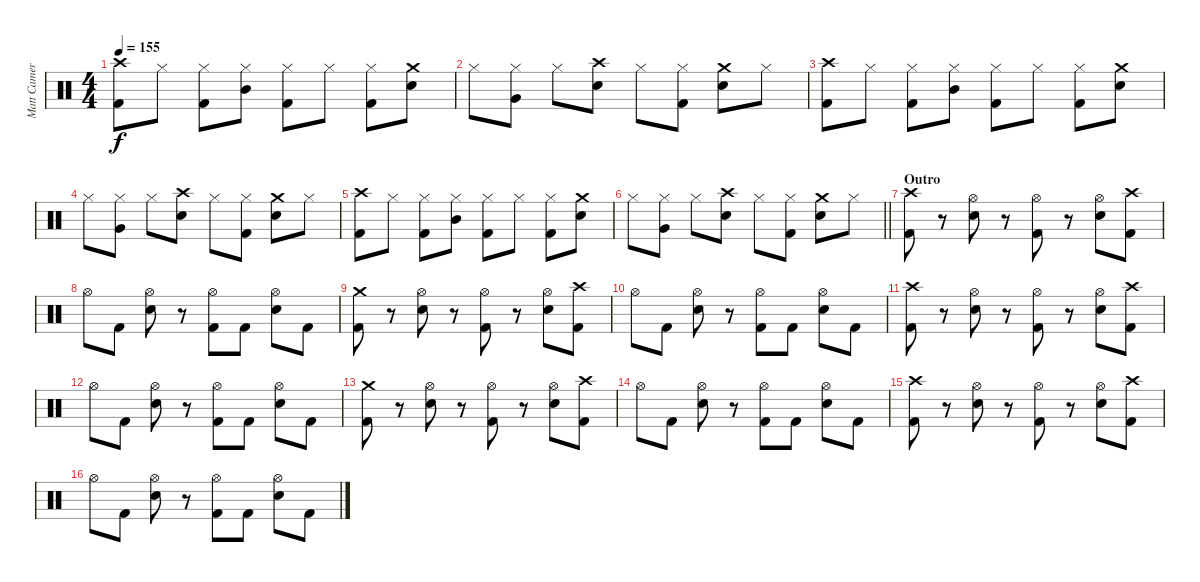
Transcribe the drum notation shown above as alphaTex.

\track ("Matt Cameron" "Matt Camer") {instrument percussion}
\staff {score}
\articulation defaults
\ts (4 4)
\tempo 155
\clef neutral
\ks c
("Crash high (hit)" "Kick (hit) 2").8{dy f} "Hi-Hat (closed)".8 ("Hi-Hat (closed)" "Kick (hit) 2").8 ("Hi-Hat (closed)" "Mid Tom (hit)").8 ("Hi-Hat (closed)" "Kick (hit) 2").8 "Hi-Hat (closed)".8 ("Hi-Hat (closed)" "Kick (hit) 2").8 ("Crash medium (hit)" "Snare (hit) 2").8 |
"Hi-Hat (closed)".8 ("Hi-Hat (closed)" "Very Low Tom (hit)").8 "Hi-Hat (closed)".8 ("Crash high (hit)" "Snare (hit) 2").8 "Hi-Hat (closed)".8 ("Hi-Hat (closed)" "Kick (hit) 2").8 ("Crash medium (hit)" "Snare (hit) 2").8 "Hi-Hat (closed)".8 |
("Crash high (hit)" "Kick (hit) 2").8 "Hi-Hat (closed)".8 ("Hi-Hat (closed)" "Kick (hit) 2").8 ("Hi-Hat (closed)" "Mid Tom (hit)").8 ("Hi-Hat (closed)" "Kick (hit) 2").8 "Hi-Hat (closed)".8 ("Hi-Hat (closed)" "Kick (hit) 2").8 ("Crash medium (hit)" "Snare (hit) 2").8 |
"Hi-Hat (closed)".8 ("Hi-Hat (closed)" "Very Low Tom (hit)").8 "Hi-Hat (closed)".8 ("Crash high (hit)" "Snare (hit) 2").8 "Hi-Hat (closed)".8 ("Hi-Hat (closed)" "Kick (hit) 2").8 ("Crash medium (hit)" "Snare (hit) 2").8 "Hi-Hat (closed)".8 |
("Crash high (hit)" "Kick (hit) 2").8 "Hi-Hat (closed)".8 ("Hi-Hat (closed)" "Kick (hit) 2").8 ("Hi-Hat (closed)" "Mid Tom (hit)").8 ("Hi-Hat (closed)" "Kick (hit) 2").8 "Hi-Hat (closed)".8 ("Hi-Hat (closed)" "Kick (hit) 2").8 ("Crash medium (hit)" "Snare (hit) 2").8 |
\barLineRight lightlight "Hi-Hat (closed)".8
("Hi-Hat (closed)" "Very Low Tom (hit)").8 "Hi-Hat (closed)".8 ("Crash high (hit)" "Snare (hit) 2").8 "Hi-Hat (closed)".8 ("Hi-Hat (closed)" "Kick (hit) 2").8 ("Crash medium (hit)" "Snare (hit) 2").8 "Hi-Hat (closed)".8 |
\section ("" "Outro")
("Crash high (hit)" "Kick (hit) 2").8 r.8 ("Hi-Hat (open)" "Snare (hit) 2").8 r.8 ("Hi-Hat (open)" "Kick (hit) 2").8 r.8 ("Hi-Hat (open)" "Snare (hit) 2").8 ("Crash high (hit)" "Kick (hit) 2").8 |
"Hi-Hat (open)".8 "Kick (hit) 2".8 ("Hi-Hat (open)" "Snare (hit) 2").8 r.8 ("Hi-Hat (open)" "Kick (hit) 2").8 "Kick (hit) 2".8 ("Hi-Hat (open)" "Snare (hit) 2").8 "Kick (hit) 2".8 |
("Crash medium (hit)" "Kick (hit) 2").8 r.8 ("Hi-Hat (open)" "Snare (hit) 2").8 r.8 ("Hi-Hat (open)" "Kick (hit) 2").8 r.8 ("Hi-Hat (open)" "Snare (hit) 2").8 ("Crash high (hit)" "Kick (hit) 2").8 |
"Hi-Hat (open)".8 "Kick (hit) 2".8 ("Hi-Hat (open)" "Snare (hit) 2").8 r.8 ("Hi-Hat (open)" "Kick (hit) 2").8 "Kick (hit) 2".8 ("Hi-Hat (open)" "Snare (hit) 2").8 "Kick (hit) 2".8 |
("Crash high (hit)" "Kick (hit) 2").8 r.8 ("Hi-Hat (open)" "Snare (hit) 2").8 r.8 ("Hi-Hat (open)" "Kick (hit) 2").8 r.8 ("Hi-Hat (open)" "Snare (hit) 2").8 ("Crash high (hit)" "Kick (hit) 2").8 |
"Hi-Hat (open)".8 "Kick (hit) 2".8 ("Hi-Hat (open)" "Snare (hit) 2").8 r.8 ("Hi-Hat (open)" "Kick (hit) 2").8 "Kick (hit) 2".8 ("Hi-Hat (open)" "Snare (hit) 2").8 "Kick (hit) 2".8 |
("Crash medium (hit)" "Kick (hit) 2").8 r.8 ("Hi-Hat (open)" "Snare (hit) 2").8 r.8 ("Hi-Hat (open)" "Kick (hit) 2").8 r.8 ("Hi-Hat (open)" "Snare (hit) 2").8 ("Crash high (hit)" "Kick (hit) 2").8 |
"Hi-Hat (open)".8 "Kick (hit) 2".8 ("Hi-Hat (open)" "Snare (hit) 2").8 r.8 ("Hi-Hat (open)" "Kick (hit) 2").8 "Kick (hit) 2".8 ("Hi-Hat (open)" "Snare (hit) 2").8 "Kick (hit) 2".8 |
("Crash high (hit)" "Kick (hit) 2").8 r.8 ("Hi-Hat (open)" "Snare (hit) 2").8 r.8 ("Hi-Hat (open)" "Kick (hit) 2").8 r.8 ("Hi-Hat (open)" "Snare (hit) 2").8 ("Crash high (hit)" "Kick (hit) 2").8 |
"Hi-Hat (open)".8 "Kick (hit) 2".8 ("Hi-Hat (open)" "Snare (hit) 2").8 r.8 ("Hi-Hat (open)" "Kick (hit) 2").8 "Kick (hit) 2".8 ("Hi-Hat (open)" "Snare (hit) 2").8 "Kick (hit) 2".8
